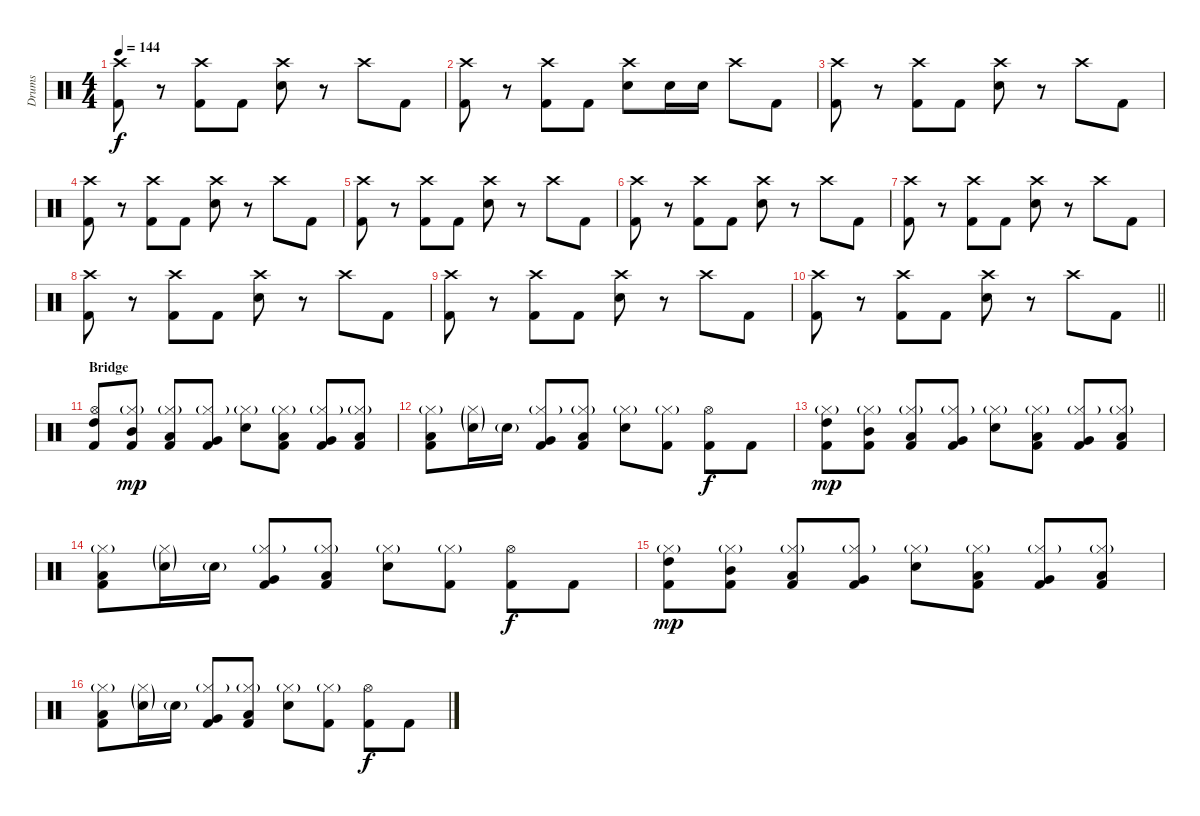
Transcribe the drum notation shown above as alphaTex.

\track ("Drums" "Drums") {instrument percussion}
\staff {score}
\articulation defaults
\ts (4 4)
\tempo 144
\clef neutral
\ks c
("Crash high (hit)" "Kick (hit) 2").8{dy f} r.8 ("Crash high (hit)" "Kick (hit) 2").8 "Kick (hit) 2".8 ("Crash high (hit)" "Electric Snare (hit)").8 r.8 "Crash high (hit)".8 "Kick (hit) 2".8 |
("Crash high (hit)" "Kick (hit) 2").8 r.8 ("Crash high (hit)" "Kick (hit) 2").8 "Kick (hit) 2".8 ("Crash high (hit)" "Electric Snare (hit)").8 "Electric Snare (hit)".16 "Electric Snare (hit)".16 "Crash high (hit)".8 "Kick (hit) 2".8 |
("Crash high (hit)" "Kick (hit) 2").8 r.8 ("Crash high (hit)" "Kick (hit) 2").8 "Kick (hit) 2".8 ("Crash high (hit)" "Electric Snare (hit)").8 r.8 "Crash high (hit)".8 "Kick (hit) 2".8 |
("Crash high (hit)" "Kick (hit) 2").8 r.8 ("Crash high (hit)" "Kick (hit) 2").8 "Kick (hit) 2".8 ("Crash high (hit)" "Electric Snare (hit)").8 r.8 "Crash high (hit)".8 "Kick (hit) 2".8 |
("Crash high (hit)" "Kick (hit) 2").8 r.8 ("Crash high (hit)" "Kick (hit) 2").8 "Kick (hit) 2".8 ("Crash high (hit)" "Electric Snare (hit)").8 r.8 "Crash high (hit)".8 "Kick (hit) 2".8 |
("Crash high (hit)" "Kick (hit) 2").8 r.8 ("Crash high (hit)" "Kick (hit) 2").8 "Kick (hit) 2".8 ("Crash high (hit)" "Electric Snare (hit)").8 r.8 "Crash high (hit)".8 "Kick (hit) 2".8 |
("Crash high (hit)" "Kick (hit) 2").8 r.8 ("Crash high (hit)" "Kick (hit) 2").8 "Kick (hit) 2".8 ("Crash high (hit)" "Electric Snare (hit)").8 r.8 "Crash high (hit)".8 "Kick (hit) 2".8 |
("Crash high (hit)" "Kick (hit) 2").8 r.8 ("Crash high (hit)" "Kick (hit) 2").8 "Kick (hit) 2".8 ("Crash high (hit)" "Electric Snare (hit)").8 r.8 "Crash high (hit)".8 "Kick (hit) 2".8 |
("Crash high (hit)" "Kick (hit) 2").8 r.8 ("Crash high (hit)" "Kick (hit) 2").8 "Kick (hit) 2".8 ("Crash high (hit)" "Electric Snare (hit)").8 r.8 "Crash high (hit)".8 "Kick (hit) 2".8 |
\barLineRight lightlight
("Crash high (hit)" "Kick (hit) 2").8 r.8 ("Crash high (hit)" "Kick (hit) 2").8 "Kick (hit) 2".8 ("Crash high (hit)" "Electric Snare (hit)").8 r.8 "Crash high (hit)".8 "Kick (hit) 2".8 |
\section ("" "Bridge")
("Hi-Hat (open)" "High Tom (hit)" "Kick (hit) 2").8 ("Hi-Hat (closed)"{g} "Mid Tom (hit)" "Kick (hit) 2").8{dy mp} ("Hi-Hat (closed)"{g} "Low Tom (hit)" "Kick (hit) 2").8 ("Hi-Hat (closed)"{g} "Very Low Tom (hit)" "Kick (hit) 2").8 ("Hi-Hat (closed)"{g} "Electric Snare (hit)").8 ("Hi-Hat (closed)"{g} "Low Tom (hit)" "Kick (hit) 2").8 ("Hi-Hat (closed)"{g} "Very Low Tom (hit)" "Kick (hit) 2").8 ("Hi-Hat (closed)"{g} "Low Floor Tom (hit)" "Kick (hit) 2").8 |
("Hi-Hat (closed)"{g} "Low Tom (hit)" "Kick (hit) 2").8 ("Hi-Hat (closed)"{g} "Electric Snare (hit)"{g}).16 "Electric Snare (hit)"{g}.16 ("Hi-Hat (closed)"{g} "Very Low Tom (hit)" "Kick (hit) 2").8 ("Hi-Hat (closed)"{g} "Low Floor Tom (hit)" "Kick (hit) 2").8 ("Hi-Hat (closed)"{g} "Electric Snare (hit)").8 ("Hi-Hat (closed)"{g} "Kick (hit) 2").8 ("Hi-Hat (open)" "Kick (hit) 2").8{dy f} "Kick (hit) 2".8 |
("Hi-Hat (closed)"{g} "High Tom (hit)" "Kick (hit) 2").8{dy mp} ("Hi-Hat (closed)"{g} "Mid Tom (hit)" "Kick (hit) 2").8 ("Hi-Hat (closed)"{g} "Low Tom (hit)" "Kick (hit) 2").8 ("Hi-Hat (closed)"{g} "Very Low Tom (hit)" "Kick (hit) 2").8 ("Hi-Hat (closed)"{g} "Electric Snare (hit)").8 ("Hi-Hat (closed)"{g} "Low Tom (hit)" "Kick (hit) 2").8 ("Hi-Hat (closed)"{g} "Very Low Tom (hit)" "Kick (hit) 2").8 ("Hi-Hat (closed)"{g} "Low Floor Tom (hit)" "Kick (hit) 2").8 |
("Hi-Hat (closed)"{g} "Low Tom (hit)" "Kick (hit) 2").8 ("Hi-Hat (closed)"{g} "Electric Snare (hit)"{g}).16 "Electric Snare (hit)"{g}.16 ("Hi-Hat (closed)"{g} "Very Low Tom (hit)" "Kick (hit) 2").8 ("Hi-Hat (closed)"{g} "Low Floor Tom (hit)" "Kick (hit) 2").8 ("Hi-Hat (closed)"{g} "Electric Snare (hit)").8 ("Hi-Hat (closed)"{g} "Kick (hit) 2").8 ("Hi-Hat (open)" "Kick (hit) 2").8{dy f} "Kick (hit) 2".8 |
("Hi-Hat (closed)"{g} "High Tom (hit)" "Kick (hit) 2").8{dy mp} ("Hi-Hat (closed)"{g} "Mid Tom (hit)" "Kick (hit) 2").8 ("Hi-Hat (closed)"{g} "Low Tom (hit)" "Kick (hit) 2").8 ("Hi-Hat (closed)"{g} "Very Low Tom (hit)" "Kick (hit) 2").8 ("Hi-Hat (closed)"{g} "Electric Snare (hit)").8 ("Hi-Hat (closed)"{g} "Low Tom (hit)" "Kick (hit) 2").8 ("Hi-Hat (closed)"{g} "Very Low Tom (hit)" "Kick (hit) 2").8 ("Hi-Hat (closed)"{g} "Low Floor Tom (hit)" "Kick (hit) 2").8 |
("Hi-Hat (closed)"{g} "Low Tom (hit)" "Kick (hit) 2").8 ("Hi-Hat (closed)"{g} "Electric Snare (hit)"{g}).16 "Electric Snare (hit)"{g}.16 ("Hi-Hat (closed)"{g} "Very Low Tom (hit)" "Kick (hit) 2").8 ("Hi-Hat (closed)"{g} "Low Floor Tom (hit)" "Kick (hit) 2").8 ("Hi-Hat (closed)"{g} "Electric Snare (hit)").8 ("Hi-Hat (closed)"{g} "Kick (hit) 2").8 ("Hi-Hat (open)" "Kick (hit) 2").8{dy f} "Kick (hit) 2".8
